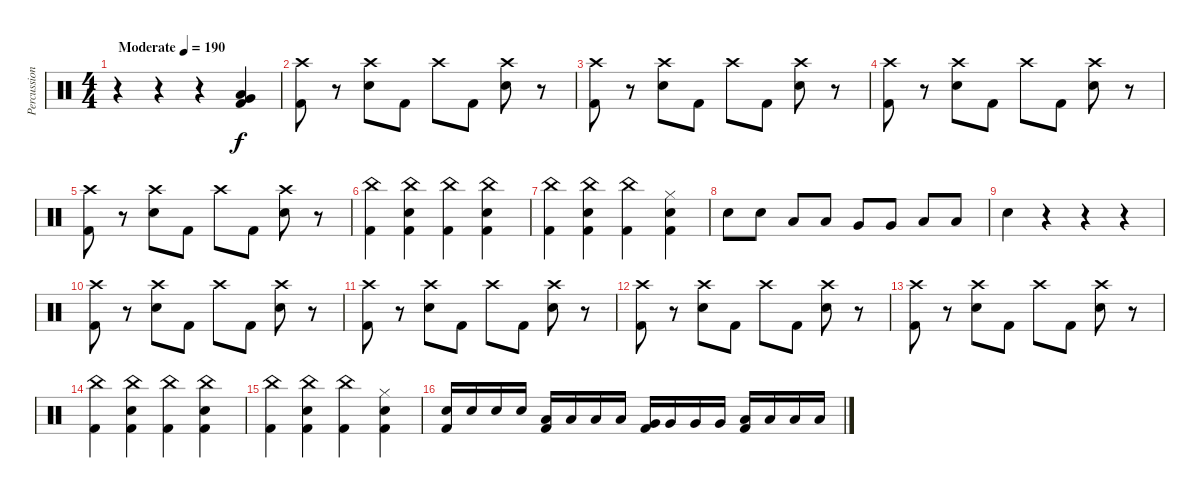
\track ("Percussion" "Percussion") {instrument percussion}
\staff {score}
\articulation defaults
\ts (4 4)
\tempo (190 "Moderate")
\clef neutral
\ks c
r.4{dy f} r.4 r.4 ("Low Tom (hit)" "Very Low Tom (hit)" "Kick (hit) 2").4 |
("Crash high (hit)" "Kick (hit) 2").8 r.8 ("Crash high (hit)" "Snare (hit) 2").8 "Kick (hit) 2".8 "Crash high (hit)".8 "Kick (hit) 2".8 ("Crash high (hit)" "Snare (hit) 2").8 r.8 |
("Crash high (hit)" "Kick (hit) 2").8 r.8 ("Crash high (hit)" "Snare (hit) 2").8 "Kick (hit) 2".8 "Crash high (hit)".8 "Kick (hit) 2".8 ("Crash high (hit)" "Snare (hit) 2").8 r.8 |
("Crash high (hit)" "Kick (hit) 2").8 r.8 ("Crash high (hit)" "Snare (hit) 2").8 "Kick (hit) 2".8 "Crash high (hit)".8 "Kick (hit) 2".8 ("Crash high (hit)" "Snare (hit) 2").8 r.8 |
("Crash high (hit)" "Kick (hit) 2").8 r.8 ("Crash high (hit)" "Snare (hit) 2").8 "Kick (hit) 2".8 "Crash high (hit)".8 "Kick (hit) 2".8 ("Crash high (hit)" "Snare (hit) 2").8 r.8 |
("China (hit)" "Kick (hit) 2").4 ("China (hit)" "Snare (hit) 2" "Kick (hit) 2").4 ("China (hit)" "Kick (hit) 2").4 ("China (hit)" "Snare (hit) 2" "Kick (hit) 2").4 |
("China (hit)" "Kick (hit) 2").4 ("China (hit)" "Snare (hit) 2" "Kick (hit) 2").4 ("China (hit)" "Kick (hit) 2").4 ("Hi-Hat (closed)" "Snare (hit) 2" "Kick (hit) 2").4 |
"Snare (hit) 2".8 "Snare (hit) 2".8 "Low Tom (hit)".8 "Low Tom (hit)".8 "Very Low Tom (hit)".8 "Very Low Tom (hit)".8 "Low Floor Tom (hit)".8 "Low Floor Tom (hit)".8 |
"Snare (hit) 2".4 r.4 r.4 r.4 |
("Crash high (hit)" "Kick (hit) 2").8 r.8 ("Crash high (hit)" "Snare (hit) 2").8 "Kick (hit) 2".8 "Crash high (hit)".8 "Kick (hit) 2".8 ("Crash high (hit)" "Snare (hit) 2").8 r.8 |
("Crash high (hit)" "Kick (hit) 2").8 r.8 ("Crash high (hit)" "Snare (hit) 2").8 "Kick (hit) 2".8 "Crash high (hit)".8 "Kick (hit) 2".8 ("Crash high (hit)" "Snare (hit) 2").8 r.8 |
("Crash high (hit)" "Kick (hit) 2").8 r.8 ("Crash high (hit)" "Snare (hit) 2").8 "Kick (hit) 2".8 "Crash high (hit)".8 "Kick (hit) 2".8 ("Crash high (hit)" "Snare (hit) 2").8 r.8 |
("Crash high (hit)" "Kick (hit) 2").8 r.8 ("Crash high (hit)" "Snare (hit) 2").8 "Kick (hit) 2".8 "Crash high (hit)".8 "Kick (hit) 2".8 ("Crash high (hit)" "Snare (hit) 2").8 r.8 |
("China (hit)" "Kick (hit) 2").4 ("China (hit)" "Snare (hit) 2" "Kick (hit) 2").4 ("China (hit)" "Kick (hit) 2").4 ("China (hit)" "Snare (hit) 2" "Kick (hit) 2").4 |
("China (hit)" "Kick (hit) 2").4 ("China (hit)" "Snare (hit) 2" "Kick (hit) 2").4 ("China (hit)" "Kick (hit) 2").4 ("Hi-Hat (closed)" "Snare (hit) 2" "Kick (hit) 2").4 |
("Snare (hit) 2" "Kick (hit) 2").16 "Snare (hit) 2".16 "Snare (hit) 2".16 "Snare (hit) 2".16 ("Low Tom (hit)" "Kick (hit) 2").16 "Low Tom (hit)".16 "Low Tom (hit)".16 "Low Tom (hit)".16 ("Very Low Tom (hit)" "Kick (hit) 2").16 "Very Low Tom (hit)".16 "Very Low Tom (hit)".16 "Very Low Tom (hit)".16 ("Low Floor Tom (hit)" "Kick (hit) 2").16 "Low Floor Tom (hit)".16 "Low Floor Tom (hit)".16 "Low Floor Tom (hit)".16
